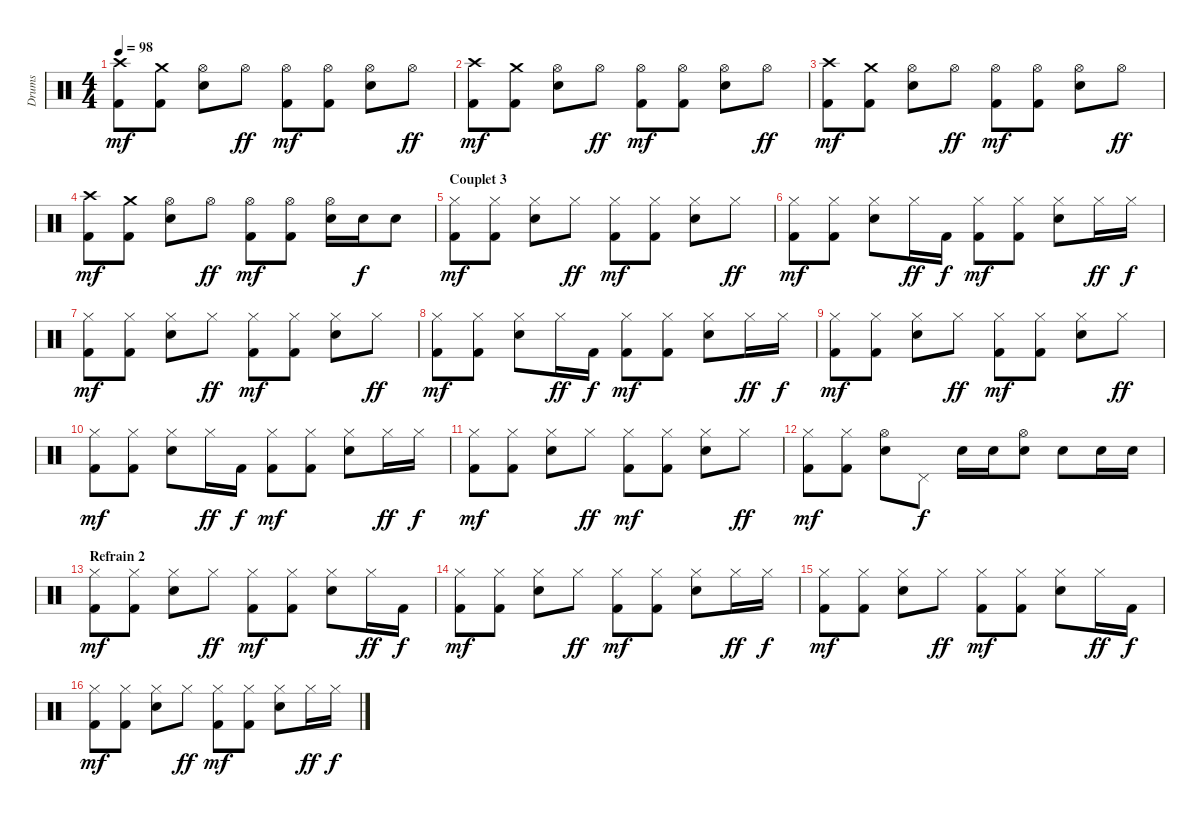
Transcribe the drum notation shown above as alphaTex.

\track ("Drums" "Drums") {instrument percussion}
\staff {score}
\articulation defaults
\ts (4 4)
\tempo 98
\clef neutral
\ks c
("Crash high (hit)" "Kick (hit) 2").8{dy mf} ("Crash medium (hit)" "Kick (hit) 2").8 ("Hi-Hat (open)" "Snare (hit) 2").8 "Hi-Hat (open)".8{dy ff} ("Hi-Hat (open)" "Kick (hit) 2").8{dy mf} ("Hi-Hat (open)" "Kick (hit) 2").8 ("Hi-Hat (open)" "Snare (hit) 2").8 "Hi-Hat (open)".8{dy ff} |
("Crash high (hit)" "Kick (hit) 2").8{dy mf} ("Crash medium (hit)" "Kick (hit) 2").8 ("Hi-Hat (open)" "Snare (hit) 2").8 "Hi-Hat (open)".8{dy ff} ("Hi-Hat (open)" "Kick (hit) 2").8{dy mf} ("Hi-Hat (open)" "Kick (hit) 2").8 ("Hi-Hat (open)" "Snare (hit) 2").8 "Hi-Hat (open)".8{dy ff} |
("Crash high (hit)" "Kick (hit) 2").8{dy mf} ("Crash medium (hit)" "Kick (hit) 2").8 ("Hi-Hat (open)" "Snare (hit) 2").8 "Hi-Hat (open)".8{dy ff} ("Hi-Hat (open)" "Kick (hit) 2").8{dy mf} ("Hi-Hat (open)" "Kick (hit) 2").8 ("Hi-Hat (open)" "Snare (hit) 2").8 "Hi-Hat (open)".8{dy ff} |
("Crash high (hit)" "Kick (hit) 2").8{dy mf} ("Crash medium (hit)" "Kick (hit) 2").8 ("Hi-Hat (open)" "Snare (hit) 2").8 "Hi-Hat (open)".8{dy ff} ("Hi-Hat (open)" "Kick (hit) 2").8{dy mf} ("Hi-Hat (open)" "Kick (hit) 2").8 ("Hi-Hat (open)" "Snare (hit) 2").16 "Snare (hit) 2".16{dy f} "Snare (hit) 2".8 |
\section ("" "Couplet 3")
("Hi-Hat (closed)" "Kick (hit) 2").8{dy mf} ("Hi-Hat (closed)" "Kick (hit) 2").8 ("Hi-Hat (closed)" "Snare (hit) 2").8 "Hi-Hat (closed)".8{dy ff} ("Hi-Hat (closed)" "Kick (hit) 2").8{dy mf} ("Hi-Hat (closed)" "Kick (hit) 2").8 ("Hi-Hat (closed)" "Snare (hit) 2").8 "Hi-Hat (closed)".8{dy ff} |
("Hi-Hat (closed)" "Kick (hit) 2").8{dy mf} ("Hi-Hat (closed)" "Kick (hit) 2").8 ("Hi-Hat (closed)" "Snare (hit) 2").8 "Hi-Hat (closed)".16{dy ff} "Kick (hit) 2".16{dy f} ("Hi-Hat (closed)" "Kick (hit) 2").8{dy mf} ("Hi-Hat (closed)" "Kick (hit) 2").8 ("Hi-Hat (closed)" "Snare (hit) 2").8 "Hi-Hat (closed)".16{dy ff} "Hi-Hat (closed)".16{dy f} |
("Hi-Hat (closed)" "Kick (hit) 2").8{dy mf} ("Hi-Hat (closed)" "Kick (hit) 2").8 ("Hi-Hat (closed)" "Snare (hit) 2").8 "Hi-Hat (closed)".8{dy ff} ("Hi-Hat (closed)" "Kick (hit) 2").8{dy mf} ("Hi-Hat (closed)" "Kick (hit) 2").8 ("Hi-Hat (closed)" "Snare (hit) 2").8 "Hi-Hat (closed)".8{dy ff} |
("Hi-Hat (closed)" "Kick (hit) 2").8{dy mf} ("Hi-Hat (closed)" "Kick (hit) 2").8 ("Hi-Hat (closed)" "Snare (hit) 2").8 "Hi-Hat (closed)".16{dy ff} "Kick (hit) 2".16{dy f} ("Hi-Hat (closed)" "Kick (hit) 2").8{dy mf} ("Hi-Hat (closed)" "Kick (hit) 2").8 ("Hi-Hat (closed)" "Snare (hit) 2").8 "Hi-Hat (closed)".16{dy ff} "Hi-Hat (closed)".16{dy f} |
("Hi-Hat (closed)" "Kick (hit) 2").8{dy mf} ("Hi-Hat (closed)" "Kick (hit) 2").8 ("Hi-Hat (closed)" "Snare (hit) 2").8 "Hi-Hat (closed)".8{dy ff} ("Hi-Hat (closed)" "Kick (hit) 2").8{dy mf} ("Hi-Hat (closed)" "Kick (hit) 2").8 ("Hi-Hat (closed)" "Snare (hit) 2").8 "Hi-Hat (closed)".8{dy ff} |
("Hi-Hat (closed)" "Kick (hit) 2").8{dy mf} ("Hi-Hat (closed)" "Kick (hit) 2").8 ("Hi-Hat (closed)" "Snare (hit) 2").8 "Hi-Hat (closed)".16{dy ff} "Kick (hit) 2".16{dy f} ("Hi-Hat (closed)" "Kick (hit) 2").8{dy mf} ("Hi-Hat (closed)" "Kick (hit) 2").8 ("Hi-Hat (closed)" "Snare (hit) 2").8 "Hi-Hat (closed)".16{dy ff} "Hi-Hat (closed)".16{dy f} |
("Hi-Hat (closed)" "Kick (hit) 2").8{dy mf} ("Hi-Hat (closed)" "Kick (hit) 2").8 ("Hi-Hat (closed)" "Snare (hit) 2").8 "Hi-Hat (closed)".8{dy ff} ("Hi-Hat (closed)" "Kick (hit) 2").8{dy mf} ("Hi-Hat (closed)" "Kick (hit) 2").8 ("Hi-Hat (closed)" "Snare (hit) 2").8 "Hi-Hat (closed)".8{dy ff} |
("Hi-Hat (closed)" "Kick (hit) 2").8{dy mf} ("Hi-Hat (closed)" "Kick (hit) 2").8 ("Hi-Hat (open)" "Snare (hit) 2").8 "Pedal Hi-Hat (hit)".8{dy f} "Snare (hit) 2".16 "Snare (hit) 2".16 ("Hi-Hat (open)" "Snare (hit) 2").8 "Snare (hit) 2".8 "Snare (hit) 2".16 "Snare (hit) 2".16 |
\section ("" "Refrain 2")
("Hi-Hat (closed)" "Kick (hit) 2").8{dy mf} ("Hi-Hat (closed)" "Kick (hit) 2").8 ("Hi-Hat (closed)" "Snare (hit) 2").8 "Hi-Hat (closed)".8{dy ff} ("Hi-Hat (closed)" "Kick (hit) 2").8{dy mf} ("Hi-Hat (closed)" "Kick (hit) 2").8 ("Hi-Hat (closed)" "Snare (hit) 2").8 "Hi-Hat (closed)".16{dy ff} "Kick (hit) 2".16{dy f} |
("Hi-Hat (closed)" "Kick (hit) 2").8{dy mf} ("Hi-Hat (closed)" "Kick (hit) 2").8 ("Hi-Hat (closed)" "Snare (hit) 2").8 "Hi-Hat (closed)".8{dy ff} ("Hi-Hat (closed)" "Kick (hit) 2").8{dy mf} ("Hi-Hat (closed)" "Kick (hit) 2").8 ("Hi-Hat (closed)" "Snare (hit) 2").8 "Hi-Hat (closed)".16{dy ff} "Hi-Hat (closed)".16{dy f} |
("Hi-Hat (closed)" "Kick (hit) 2").8{dy mf} ("Hi-Hat (closed)" "Kick (hit) 2").8 ("Hi-Hat (closed)" "Snare (hit) 2").8 "Hi-Hat (closed)".8{dy ff} ("Hi-Hat (closed)" "Kick (hit) 2").8{dy mf} ("Hi-Hat (closed)" "Kick (hit) 2").8 ("Hi-Hat (closed)" "Snare (hit) 2").8 "Hi-Hat (closed)".16{dy ff} "Kick (hit) 2".16{dy f} |
("Hi-Hat (closed)" "Kick (hit) 2").8{dy mf} ("Hi-Hat (closed)" "Kick (hit) 2").8 ("Hi-Hat (closed)" "Snare (hit) 2").8 "Hi-Hat (closed)".8{dy ff} ("Hi-Hat (closed)" "Kick (hit) 2").8{dy mf} ("Hi-Hat (closed)" "Kick (hit) 2").8 ("Hi-Hat (closed)" "Snare (hit) 2").8 "Hi-Hat (closed)".16{dy ff} "Hi-Hat (closed)".16{dy f}
